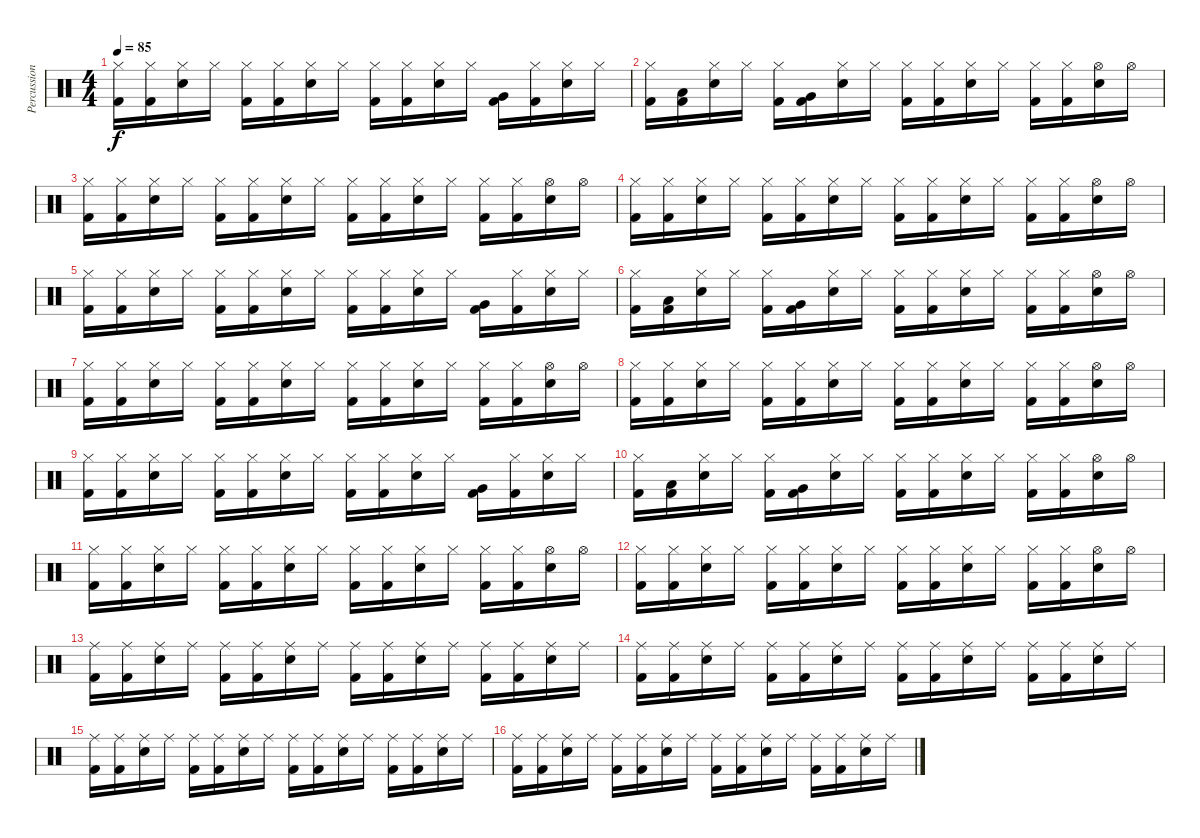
\track ("Percussion" "Percussion") {instrument percussion}
\staff {score}
\articulation defaults
\ts (4 4)
\tempo 85
\clef neutral
\ks c
("Hi-Hat (closed)" "Kick (hit) 2").16{dy f} ("Hi-Hat (closed)" "Kick (hit) 2").16 ("Hi-Hat (closed)" "Snare (hit) 2").16 "Hi-Hat (closed)".16 ("Hi-Hat (closed)" "Kick (hit) 2").16 ("Hi-Hat (closed)" "Kick (hit) 2").16 ("Hi-Hat (closed)" "Snare (hit) 2").16 "Hi-Hat (closed)".16 ("Hi-Hat (closed)" "Kick (hit) 2").16 ("Hi-Hat (closed)" "Kick (hit) 2").16 ("Hi-Hat (closed)" "Snare (hit) 2").16 "Hi-Hat (closed)".16 ("Very Low Tom (hit)" "Kick (hit) 2").16 ("Hi-Hat (closed)" "Kick (hit) 2").16 ("Hi-Hat (closed)" "Snare (hit) 2").16 "Hi-Hat (closed)".16 |
("Hi-Hat (closed)" "Kick (hit) 2").16 ("Low Tom (hit)" "Kick (hit) 2").16 ("Hi-Hat (closed)" "Snare (hit) 2").16 "Hi-Hat (closed)".16 ("Hi-Hat (closed)" "Kick (hit) 2").16 ("Very Low Tom (hit)" "Kick (hit) 2").16 ("Hi-Hat (closed)" "Snare (hit) 2").16 "Hi-Hat (closed)".16 ("Hi-Hat (closed)" "Kick (hit) 2").16 ("Hi-Hat (closed)" "Kick (hit) 2").16 ("Hi-Hat (closed)" "Snare (hit) 2").16 "Hi-Hat (closed)".16 ("Hi-Hat (closed)" "Kick (hit) 2").16 ("Hi-Hat (closed)" "Kick (hit) 2").16 ("Hi-Hat (open)" "Snare (hit) 2").16 "Hi-Hat (open)".16 |
("Hi-Hat (closed)" "Kick (hit) 2").16 ("Hi-Hat (closed)" "Kick (hit) 2").16 ("Hi-Hat (closed)" "Snare (hit) 2").16 "Hi-Hat (closed)".16 ("Hi-Hat (closed)" "Kick (hit) 2").16 ("Hi-Hat (closed)" "Kick (hit) 2").16 ("Hi-Hat (closed)" "Snare (hit) 2").16 "Hi-Hat (closed)".16 ("Hi-Hat (closed)" "Kick (hit) 2").16 ("Hi-Hat (closed)" "Kick (hit) 2").16 ("Hi-Hat (closed)" "Snare (hit) 2").16 "Hi-Hat (closed)".16 ("Hi-Hat (closed)" "Kick (hit) 2").16 ("Hi-Hat (closed)" "Kick (hit) 2").16 ("Hi-Hat (open)" "Snare (hit) 2").16 "Hi-Hat (open)".16 |
("Hi-Hat (closed)" "Kick (hit) 2").16 ("Hi-Hat (closed)" "Kick (hit) 2").16 ("Hi-Hat (closed)" "Snare (hit) 2").16 "Hi-Hat (closed)".16 ("Hi-Hat (closed)" "Kick (hit) 2").16 ("Hi-Hat (closed)" "Kick (hit) 2").16 ("Hi-Hat (closed)" "Snare (hit) 2").16 "Hi-Hat (closed)".16 ("Hi-Hat (closed)" "Kick (hit) 2").16 ("Hi-Hat (closed)" "Kick (hit) 2").16 ("Hi-Hat (closed)" "Snare (hit) 2").16 "Hi-Hat (closed)".16 ("Hi-Hat (closed)" "Kick (hit) 2").16 ("Hi-Hat (closed)" "Kick (hit) 2").16 ("Hi-Hat (open)" "Snare (hit) 2").16 "Hi-Hat (open)".16 |
("Hi-Hat (closed)" "Kick (hit) 2").16 ("Hi-Hat (closed)" "Kick (hit) 2").16 ("Hi-Hat (closed)" "Snare (hit) 2").16 "Hi-Hat (closed)".16 ("Hi-Hat (closed)" "Kick (hit) 2").16 ("Hi-Hat (closed)" "Kick (hit) 2").16 ("Hi-Hat (closed)" "Snare (hit) 2").16 "Hi-Hat (closed)".16 ("Hi-Hat (closed)" "Kick (hit) 2").16 ("Hi-Hat (closed)" "Kick (hit) 2").16 ("Hi-Hat (closed)" "Snare (hit) 2").16 "Hi-Hat (closed)".16 ("Very Low Tom (hit)" "Kick (hit) 2").16 ("Hi-Hat (closed)" "Kick (hit) 2").16 ("Hi-Hat (closed)" "Snare (hit) 2").16 "Hi-Hat (closed)".16 |
("Hi-Hat (closed)" "Kick (hit) 2").16 ("Low Tom (hit)" "Kick (hit) 2").16 ("Hi-Hat (closed)" "Snare (hit) 2").16 "Hi-Hat (closed)".16 ("Hi-Hat (closed)" "Kick (hit) 2").16 ("Very Low Tom (hit)" "Kick (hit) 2").16 ("Hi-Hat (closed)" "Snare (hit) 2").16 "Hi-Hat (closed)".16 ("Hi-Hat (closed)" "Kick (hit) 2").16 ("Hi-Hat (closed)" "Kick (hit) 2").16 ("Hi-Hat (closed)" "Snare (hit) 2").16 "Hi-Hat (closed)".16 ("Hi-Hat (closed)" "Kick (hit) 2").16 ("Hi-Hat (closed)" "Kick (hit) 2").16 ("Hi-Hat (open)" "Snare (hit) 2").16 "Hi-Hat (open)".16 |
("Hi-Hat (closed)" "Kick (hit) 2").16 ("Hi-Hat (closed)" "Kick (hit) 2").16 ("Hi-Hat (closed)" "Snare (hit) 2").16 "Hi-Hat (closed)".16 ("Hi-Hat (closed)" "Kick (hit) 2").16 ("Hi-Hat (closed)" "Kick (hit) 2").16 ("Hi-Hat (closed)" "Snare (hit) 2").16 "Hi-Hat (closed)".16 ("Hi-Hat (closed)" "Kick (hit) 2").16 ("Hi-Hat (closed)" "Kick (hit) 2").16 ("Hi-Hat (closed)" "Snare (hit) 2").16 "Hi-Hat (closed)".16 ("Hi-Hat (closed)" "Kick (hit) 2").16 ("Hi-Hat (closed)" "Kick (hit) 2").16 ("Hi-Hat (open)" "Snare (hit) 2").16 "Hi-Hat (open)".16 |
("Hi-Hat (closed)" "Kick (hit) 2").16 ("Hi-Hat (closed)" "Kick (hit) 2").16 ("Hi-Hat (closed)" "Snare (hit) 2").16 "Hi-Hat (closed)".16 ("Hi-Hat (closed)" "Kick (hit) 2").16 ("Hi-Hat (closed)" "Kick (hit) 2").16 ("Hi-Hat (closed)" "Snare (hit) 2").16 "Hi-Hat (closed)".16 ("Hi-Hat (closed)" "Kick (hit) 2").16 ("Hi-Hat (closed)" "Kick (hit) 2").16 ("Hi-Hat (closed)" "Snare (hit) 2").16 "Hi-Hat (closed)".16 ("Hi-Hat (closed)" "Kick (hit) 2").16 ("Hi-Hat (closed)" "Kick (hit) 2").16 ("Hi-Hat (open)" "Snare (hit) 2").16 "Hi-Hat (open)".16 |
("Hi-Hat (closed)" "Kick (hit) 2").16 ("Hi-Hat (closed)" "Kick (hit) 2").16 ("Hi-Hat (closed)" "Snare (hit) 2").16 "Hi-Hat (closed)".16 ("Hi-Hat (closed)" "Kick (hit) 2").16 ("Hi-Hat (closed)" "Kick (hit) 2").16 ("Hi-Hat (closed)" "Snare (hit) 2").16 "Hi-Hat (closed)".16 ("Hi-Hat (closed)" "Kick (hit) 2").16 ("Hi-Hat (closed)" "Kick (hit) 2").16 ("Hi-Hat (closed)" "Snare (hit) 2").16 "Hi-Hat (closed)".16 ("Very Low Tom (hit)" "Kick (hit) 2").16 ("Hi-Hat (closed)" "Kick (hit) 2").16 ("Hi-Hat (closed)" "Snare (hit) 2").16 "Hi-Hat (closed)".16 |
("Hi-Hat (closed)" "Kick (hit) 2").16 ("Low Tom (hit)" "Kick (hit) 2").16 ("Hi-Hat (closed)" "Snare (hit) 2").16 "Hi-Hat (closed)".16 ("Hi-Hat (closed)" "Kick (hit) 2").16 ("Very Low Tom (hit)" "Kick (hit) 2").16 ("Hi-Hat (closed)" "Snare (hit) 2").16 "Hi-Hat (closed)".16 ("Hi-Hat (closed)" "Kick (hit) 2").16 ("Hi-Hat (closed)" "Kick (hit) 2").16 ("Hi-Hat (closed)" "Snare (hit) 2").16 "Hi-Hat (closed)".16 ("Hi-Hat (closed)" "Kick (hit) 2").16 ("Hi-Hat (closed)" "Kick (hit) 2").16 ("Hi-Hat (open)" "Snare (hit) 2").16 "Hi-Hat (open)".16 |
("Hi-Hat (closed)" "Kick (hit) 2").16 ("Hi-Hat (closed)" "Kick (hit) 2").16 ("Hi-Hat (closed)" "Snare (hit) 2").16 "Hi-Hat (closed)".16 ("Hi-Hat (closed)" "Kick (hit) 2").16 ("Hi-Hat (closed)" "Kick (hit) 2").16 ("Hi-Hat (closed)" "Snare (hit) 2").16 "Hi-Hat (closed)".16 ("Hi-Hat (closed)" "Kick (hit) 2").16 ("Hi-Hat (closed)" "Kick (hit) 2").16 ("Hi-Hat (closed)" "Snare (hit) 2").16 "Hi-Hat (closed)".16 ("Hi-Hat (closed)" "Kick (hit) 2").16 ("Hi-Hat (closed)" "Kick (hit) 2").16 ("Hi-Hat (open)" "Snare (hit) 2").16 "Hi-Hat (open)".16 |
("Hi-Hat (closed)" "Kick (hit) 2").16 ("Hi-Hat (closed)" "Kick (hit) 2").16 ("Hi-Hat (closed)" "Snare (hit) 2").16 "Hi-Hat (closed)".16 ("Hi-Hat (closed)" "Kick (hit) 2").16 ("Hi-Hat (closed)" "Kick (hit) 2").16 ("Hi-Hat (closed)" "Snare (hit) 2").16 "Hi-Hat (closed)".16 ("Hi-Hat (closed)" "Kick (hit) 2").16 ("Hi-Hat (closed)" "Kick (hit) 2").16 ("Hi-Hat (closed)" "Snare (hit) 2").16 "Hi-Hat (closed)".16 ("Hi-Hat (closed)" "Kick (hit) 2").16 ("Hi-Hat (closed)" "Kick (hit) 2").16 ("Hi-Hat (open)" "Snare (hit) 2").16 "Hi-Hat (open)".16 |
("Ride (middle)" "Kick (hit) 2").16 ("Ride (middle)" "Kick (hit) 2").16 ("Ride (middle)" "Snare (hit) 2").16 "Ride (middle)".16 ("Ride (middle)" "Kick (hit) 2").16 ("Ride (middle)" "Kick (hit) 2").16 ("Ride (middle)" "Snare (hit) 2").16 "Ride (middle)".16 ("Ride (middle)" "Kick (hit) 2").16 ("Ride (middle)" "Kick (hit) 2").16 ("Ride (middle)" "Snare (hit) 2").16 "Ride (middle)".16 ("Ride (middle)" "Kick (hit) 2").16 ("Ride (middle)" "Kick (hit) 2").16 ("Ride (middle)" "Snare (hit) 2").16 "Ride (middle)".16 |
("Ride (middle)" "Kick (hit) 2").16 ("Ride (middle)" "Kick (hit) 2").16 ("Ride (middle)" "Snare (hit) 2").16 "Ride (middle)".16 ("Ride (middle)" "Kick (hit) 2").16 ("Ride (middle)" "Kick (hit) 2").16 ("Ride (middle)" "Snare (hit) 2").16 "Ride (middle)".16 ("Ride (middle)" "Kick (hit) 2").16 ("Ride (middle)" "Kick (hit) 2").16 ("Ride (middle)" "Snare (hit) 2").16 "Ride (middle)".16 ("Ride (middle)" "Kick (hit) 2").16 ("Ride (middle)" "Kick (hit) 2").16 ("Ride (middle)" "Snare (hit) 2").16 "Ride (middle)".16 |
("Ride (middle)" "Kick (hit) 2").16 ("Ride (middle)" "Kick (hit) 2").16 ("Ride (middle)" "Snare (hit) 2").16 "Ride (middle)".16 ("Ride (middle)" "Kick (hit) 2").16 ("Ride (middle)" "Kick (hit) 2").16 ("Ride (middle)" "Snare (hit) 2").16 "Ride (middle)".16 ("Ride (middle)" "Kick (hit) 2").16 ("Ride (middle)" "Kick (hit) 2").16 ("Ride (middle)" "Snare (hit) 2").16 "Ride (middle)".16 ("Ride (middle)" "Kick (hit) 2").16 ("Ride (middle)" "Kick (hit) 2").16 ("Ride (middle)" "Snare (hit) 2").16 "Ride (middle)".16 |
("Ride (middle)" "Kick (hit) 2").16 ("Ride (middle)" "Kick (hit) 2").16 ("Ride (middle)" "Snare (hit) 2").16 "Ride (middle)".16 ("Ride (middle)" "Kick (hit) 2").16 ("Ride (middle)" "Kick (hit) 2").16 ("Ride (middle)" "Snare (hit) 2").16 "Ride (middle)".16 ("Ride (middle)" "Kick (hit) 2").16 ("Ride (middle)" "Kick (hit) 2").16 ("Ride (middle)" "Snare (hit) 2").16 "Ride (middle)".16 ("Ride (middle)" "Kick (hit) 2").16 ("Ride (middle)" "Kick (hit) 2").16 ("Ride (middle)" "Snare (hit) 2").16 "Ride (middle)".16
